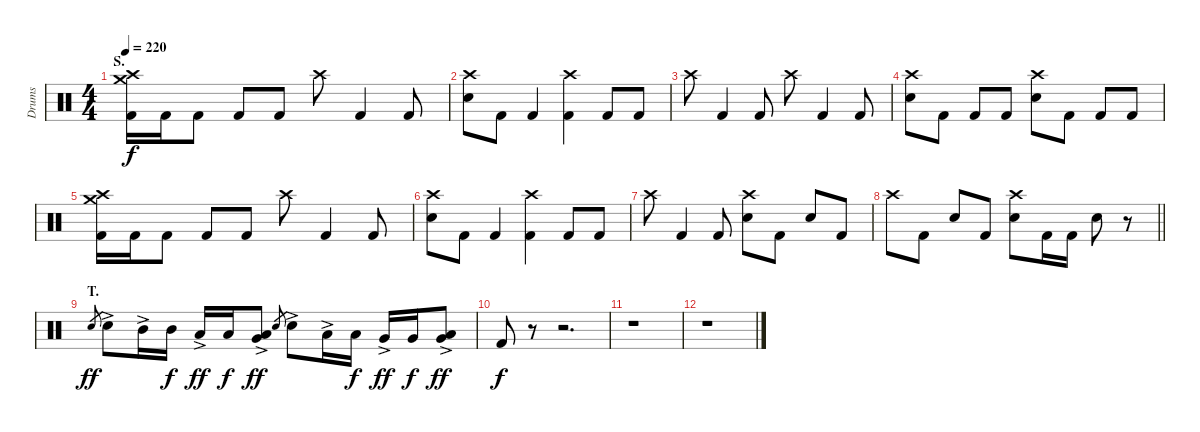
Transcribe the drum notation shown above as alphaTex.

\track ("Drums" "Drums") {instrument percussion}
\staff {score}
\articulation defaults
\ts (4 4)
\section ("" "S.")
\tempo 220
\clef neutral
\ks c
("Crash medium (hit)" "Crash high (hit)" "Kick (hit) 2").16{dy f} "Kick (hit) 2".16 "Kick (hit) 2".8 "Kick (hit) 2".8 "Kick (hit) 2".8 "Crash high (hit)".8 "Kick (hit) 2".4 "Kick (hit) 2".8 |
("Crash high (hit)" "Electric Snare (hit)").8 "Kick (hit) 2".8 "Kick (hit) 2".4 ("Crash high (hit)" "Kick (hit) 2").4 "Kick (hit) 2".8 "Kick (hit) 2".8 |
"Crash high (hit)".8 "Kick (hit) 2".4 "Kick (hit) 2".8 "Crash high (hit)".8 "Kick (hit) 2".4 "Kick (hit) 2".8 |
("Crash high (hit)" "Electric Snare (hit)").8 "Kick (hit) 2".8 "Kick (hit) 2".8 "Kick (hit) 2".8 ("Crash high (hit)" "Electric Snare (hit)").8 "Kick (hit) 2".8 "Kick (hit) 2".8 "Kick (hit) 2".8 |
("Crash medium (hit)" "Crash high (hit)" "Kick (hit) 2").16 "Kick (hit) 2".16 "Kick (hit) 2".8 "Kick (hit) 2".8 "Kick (hit) 2".8 "Crash high (hit)".8 "Kick (hit) 2".4 "Kick (hit) 2".8 |
("Crash high (hit)" "Electric Snare (hit)").8 "Kick (hit) 2".8 "Kick (hit) 2".4 ("Crash high (hit)" "Kick (hit) 2").4 "Kick (hit) 2".8 "Kick (hit) 2".8 |
"Crash high (hit)".8 "Kick (hit) 2".4 "Kick (hit) 2".8 ("Crash high (hit)" "Electric Snare (hit)").8 "Kick (hit) 2".8 "Electric Snare (hit)".8 "Kick (hit) 2".8 |
\barLineRight lightlight "Crash high (hit)".8 "Kick (hit) 2".8 "Electric Snare (hit)".8 "Kick (hit) 2".8
("Crash high (hit)" "Electric Snare (hit)").8 "Kick (hit) 2".16 "Kick (hit) 2".16 "Electric Snare (hit)".8 r.8 |
\section ("" "T.")
"Electric Snare (hit)".8{gr dy ff} "Electric Snare (hit)"{ac}.8 "Mid Tom (hit)"{ac}.16 "Mid Tom (hit)".16{dy f} "Low Tom (hit)"{ac}.16{dy ff} "Low Tom (hit)".16{dy f} ("Low Tom (hit)" "Very Low Tom (hit)"{ac}).8{bu 120 dy ff} "Electric Snare (hit)".8{gr} "Electric Snare (hit)"{ac}.8 "Low Tom (hit)"{ac}.16 "Low Tom (hit)".16{dy f} "Very Low Tom (hit)"{ac}.16{dy ff} "Very Low Tom (hit)".16{dy f} ("Very Low Tom (hit)" "Low Floor Tom (hit)"{ac}).8{bu 120 dy ff} |
"Kick (hit) 2".8{dy f} r.8 r.2{d} |
r.1 |
r.1
